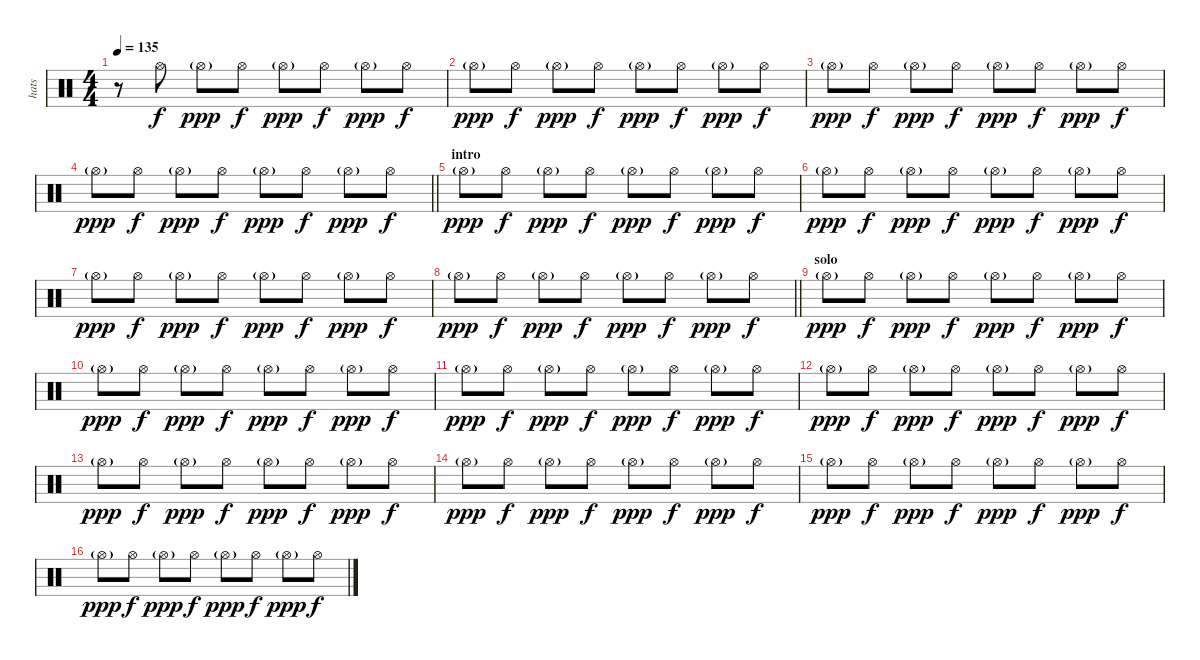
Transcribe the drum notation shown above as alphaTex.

\track ("hats" "hats") {instrument percussion}
\staff {score}
\articulation defaults
\ts (4 4)
\tempo 135
\clef neutral
\ks c
r.8{dy f} "Hi-Hat (open)".8 "Hi-Hat (open)"{g}.8{dy ppp} "Hi-Hat (open)".8{dy f} "Hi-Hat (open)"{g}.8{dy ppp} "Hi-Hat (open)".8{dy f} "Hi-Hat (open)"{g}.8{dy ppp} "Hi-Hat (open)".8{dy f} |
"Hi-Hat (open)"{g}.8{dy ppp} "Hi-Hat (open)".8{dy f} "Hi-Hat (open)"{g}.8{dy ppp} "Hi-Hat (open)".8{dy f} "Hi-Hat (open)"{g}.8{dy ppp} "Hi-Hat (open)".8{dy f} "Hi-Hat (open)"{g}.8{dy ppp} "Hi-Hat (open)".8{dy f} |
"Hi-Hat (open)"{g}.8{dy ppp} "Hi-Hat (open)".8{dy f} "Hi-Hat (open)"{g}.8{dy ppp} "Hi-Hat (open)".8{dy f} "Hi-Hat (open)"{g}.8{dy ppp} "Hi-Hat (open)".8{dy f} "Hi-Hat (open)"{g}.8{dy ppp} "Hi-Hat (open)".8{dy f} |
\barLineRight lightlight "Hi-Hat (open)"{g}.8{dy ppp} "Hi-Hat (open)".8{dy f} "Hi-Hat (open)"{g}.8{dy ppp} "Hi-Hat (open)".8{dy f} "Hi-Hat (open)"{g}.8{dy ppp} "Hi-Hat (open)".8{dy f} "Hi-Hat (open)"{g}.8{dy ppp} "Hi-Hat (open)".8{dy f}
|
\section ("" "intro")
"Hi-Hat (open)"{g}.8{dy ppp} "Hi-Hat (open)".8{dy f} "Hi-Hat (open)"{g}.8{dy ppp} "Hi-Hat (open)".8{dy f} "Hi-Hat (open)"{g}.8{dy ppp} "Hi-Hat (open)".8{dy f} "Hi-Hat (open)"{g}.8{dy ppp} "Hi-Hat (open)".8{dy f} |
"Hi-Hat (open)"{g}.8{dy ppp} "Hi-Hat (open)".8{dy f} "Hi-Hat (open)"{g}.8{dy ppp} "Hi-Hat (open)".8{dy f} "Hi-Hat (open)"{g}.8{dy ppp} "Hi-Hat (open)".8{dy f} "Hi-Hat (open)"{g}.8{dy ppp} "Hi-Hat (open)".8{dy f} |
"Hi-Hat (open)"{g}.8{dy ppp} "Hi-Hat (open)".8{dy f} "Hi-Hat (open)"{g}.8{dy ppp} "Hi-Hat (open)".8{dy f} "Hi-Hat (open)"{g}.8{dy ppp} "Hi-Hat (open)".8{dy f} "Hi-Hat (open)"{g}.8{dy ppp} "Hi-Hat (open)".8{dy f} |
\barLineRight lightlight "Hi-Hat (open)"{g}.8{dy ppp} "Hi-Hat (open)".8{dy f} "Hi-Hat (open)"{g}.8{dy ppp} "Hi-Hat (open)".8{dy f} "Hi-Hat (open)"{g}.8{dy ppp} "Hi-Hat (open)".8{dy f} "Hi-Hat (open)"{g}.8{dy ppp} "Hi-Hat (open)".8{dy f}
|
\section ("" "solo")
"Hi-Hat (open)"{g}.8{dy ppp} "Hi-Hat (open)".8{dy f} "Hi-Hat (open)"{g}.8{dy ppp} "Hi-Hat (open)".8{dy f} "Hi-Hat (open)"{g}.8{dy ppp} "Hi-Hat (open)".8{dy f} "Hi-Hat (open)"{g}.8{dy ppp} "Hi-Hat (open)".8{dy f} |
"Hi-Hat (open)"{g}.8{dy ppp} "Hi-Hat (open)".8{dy f} "Hi-Hat (open)"{g}.8{dy ppp} "Hi-Hat (open)".8{dy f} "Hi-Hat (open)"{g}.8{dy ppp} "Hi-Hat (open)".8{dy f} "Hi-Hat (open)"{g}.8{dy ppp} "Hi-Hat (open)".8{dy f} |
"Hi-Hat (open)"{g}.8{dy ppp} "Hi-Hat (open)".8{dy f} "Hi-Hat (open)"{g}.8{dy ppp} "Hi-Hat (open)".8{dy f} "Hi-Hat (open)"{g}.8{dy ppp} "Hi-Hat (open)".8{dy f} "Hi-Hat (open)"{g}.8{dy ppp} "Hi-Hat (open)".8{dy f} |
"Hi-Hat (open)"{g}.8{dy ppp} "Hi-Hat (open)".8{dy f} "Hi-Hat (open)"{g}.8{dy ppp} "Hi-Hat (open)".8{dy f} "Hi-Hat (open)"{g}.8{dy ppp} "Hi-Hat (open)".8{dy f} "Hi-Hat (open)"{g}.8{dy ppp} "Hi-Hat (open)".8{dy f} |
"Hi-Hat (open)"{g}.8{dy ppp} "Hi-Hat (open)".8{dy f} "Hi-Hat (open)"{g}.8{dy ppp} "Hi-Hat (open)".8{dy f} "Hi-Hat (open)"{g}.8{dy ppp} "Hi-Hat (open)".8{dy f} "Hi-Hat (open)"{g}.8{dy ppp} "Hi-Hat (open)".8{dy f} |
"Hi-Hat (open)"{g}.8{dy ppp} "Hi-Hat (open)".8{dy f} "Hi-Hat (open)"{g}.8{dy ppp} "Hi-Hat (open)".8{dy f} "Hi-Hat (open)"{g}.8{dy ppp} "Hi-Hat (open)".8{dy f} "Hi-Hat (open)"{g}.8{dy ppp} "Hi-Hat (open)".8{dy f} |
"Hi-Hat (open)"{g}.8{dy ppp} "Hi-Hat (open)".8{dy f} "Hi-Hat (open)"{g}.8{dy ppp} "Hi-Hat (open)".8{dy f} "Hi-Hat (open)"{g}.8{dy ppp} "Hi-Hat (open)".8{dy f} "Hi-Hat (open)"{g}.8{dy ppp} "Hi-Hat (open)".8{dy f} |
"Hi-Hat (open)"{g}.8{dy ppp} "Hi-Hat (open)".8{dy f} "Hi-Hat (open)"{g}.8{dy ppp} "Hi-Hat (open)".8{dy f} "Hi-Hat (open)"{g}.8{dy ppp} "Hi-Hat (open)".8{dy f} "Hi-Hat (open)"{g}.8{dy ppp} "Hi-Hat (open)".8{dy f}
